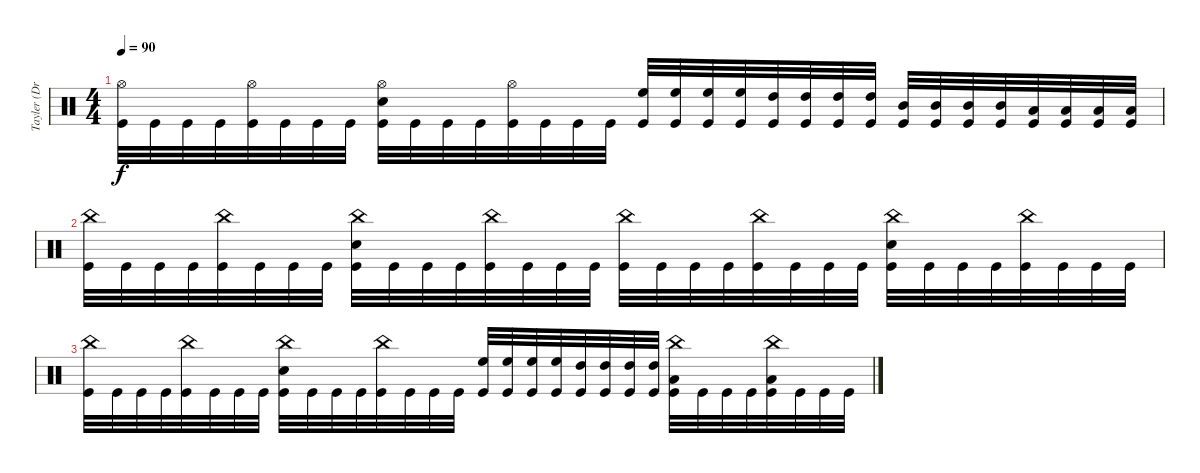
\track ("Tayler (Drums)" "Tayler (Dr") {instrument percussion}
\staff {score}
\articulation defaults
\ts (4 4)
\tempo 90
\clef neutral
\ks c
("Hi-Hat (open)" "Kick (hit)").32{dy f} "Kick (hit)".32 "Kick (hit)".32 "Kick (hit)".32 ("Hi-Hat (open)" "Kick (hit)").32 "Kick (hit)".32 "Kick (hit)".32 "Kick (hit)".32 ("Hi-Hat (open)" "Electric Snare (hit)" "Kick (hit)").32 "Kick (hit)".32 "Kick (hit)".32 "Kick (hit)".32 ("Hi-Hat (open)" "Kick (hit)").32 "Kick (hit)".32 "Kick (hit)".32 "Kick (hit)".32 ("High Floor Tom (hit)" "Kick (hit)").32 ("High Floor Tom (hit)" "Kick (hit)").32 ("High Floor Tom (hit)" "Kick (hit)").32 ("High Floor Tom (hit)" "Kick (hit)").32 ("High Tom (hit)" "Kick (hit)").32 ("High Tom (hit)" "Kick (hit)").32 ("High Tom (hit)" "Kick (hit)").32 ("High Tom (hit)" "Kick (hit)").32 ("Mid Tom (hit)" "Kick (hit)").32 ("Mid Tom (hit)" "Kick (hit)").32 ("Mid Tom (hit)" "Kick (hit)").32 ("Mid Tom (hit)" "Kick (hit)").32 ("Low Tom (hit)" "Kick (hit)").32 ("Low Tom (hit)" "Kick (hit)").32 ("Low Tom (hit)" "Kick (hit)").32 ("Low Tom (hit)" "Kick (hit)").32 |
("China (hit)" "Kick (hit)").32 "Kick (hit)".32 "Kick (hit)".32 "Kick (hit)".32 ("China (hit)" "Kick (hit)").32 "Kick (hit)".32 "Kick (hit)".32 "Kick (hit)".32 ("China (hit)" "Electric Snare (hit)" "Kick (hit)").32 "Kick (hit)".32 "Kick (hit)".32 "Kick (hit)".32 ("China (hit)" "Kick (hit)").32 "Kick (hit)".32 "Kick (hit)".32 "Kick (hit)".32 ("China (hit)" "Kick (hit)").32 "Kick (hit)".32 "Kick (hit)".32 "Kick (hit)".32 ("China (hit)" "Kick (hit)").32 "Kick (hit)".32 "Kick (hit)".32 "Kick (hit)".32 ("China (hit)" "Electric Snare (hit)" "Kick (hit)").32 "Kick (hit)".32 "Kick (hit)".32 "Kick (hit)".32 ("China (hit)" "Kick (hit)").32 "Kick (hit)".32 "Kick (hit)".32 "Kick (hit)".32 |
("China (hit)" "Kick (hit)").32 "Kick (hit)".32 "Kick (hit)".32 "Kick (hit)".32 ("China (hit)" "Kick (hit)").32 "Kick (hit)".32 "Kick (hit)".32 "Kick (hit)".32 ("China (hit)" "Electric Snare (hit)" "Kick (hit)").32 "Kick (hit)".32 "Kick (hit)".32 "Kick (hit)".32 ("China (hit)" "Kick (hit)").32 "Kick (hit)".32 "Kick (hit)".32 "Kick (hit)".32 ("High Floor Tom (hit)" "Kick (hit)").32 ("High Floor Tom (hit)" "Kick (hit)").32 ("High Floor Tom (hit)" "Kick (hit)").32 ("High Floor Tom (hit)" "Kick (hit)").32 ("High Tom (hit)" "Kick (hit)").32 ("High Tom (hit)" "Kick (hit)").32 ("High Tom (hit)" "Kick (hit)").32 ("High Tom (hit)" "Kick (hit)").32 ("China (hit)" "Low Tom (hit)" "Kick (hit)").32 "Kick (hit)".32 "Kick (hit)".32 "Kick (hit)".32 ("Low Tom (hit)" "China (hit)" "Kick (hit)").32 "Kick (hit)".32 "Kick (hit)".32 "Kick (hit)".32
